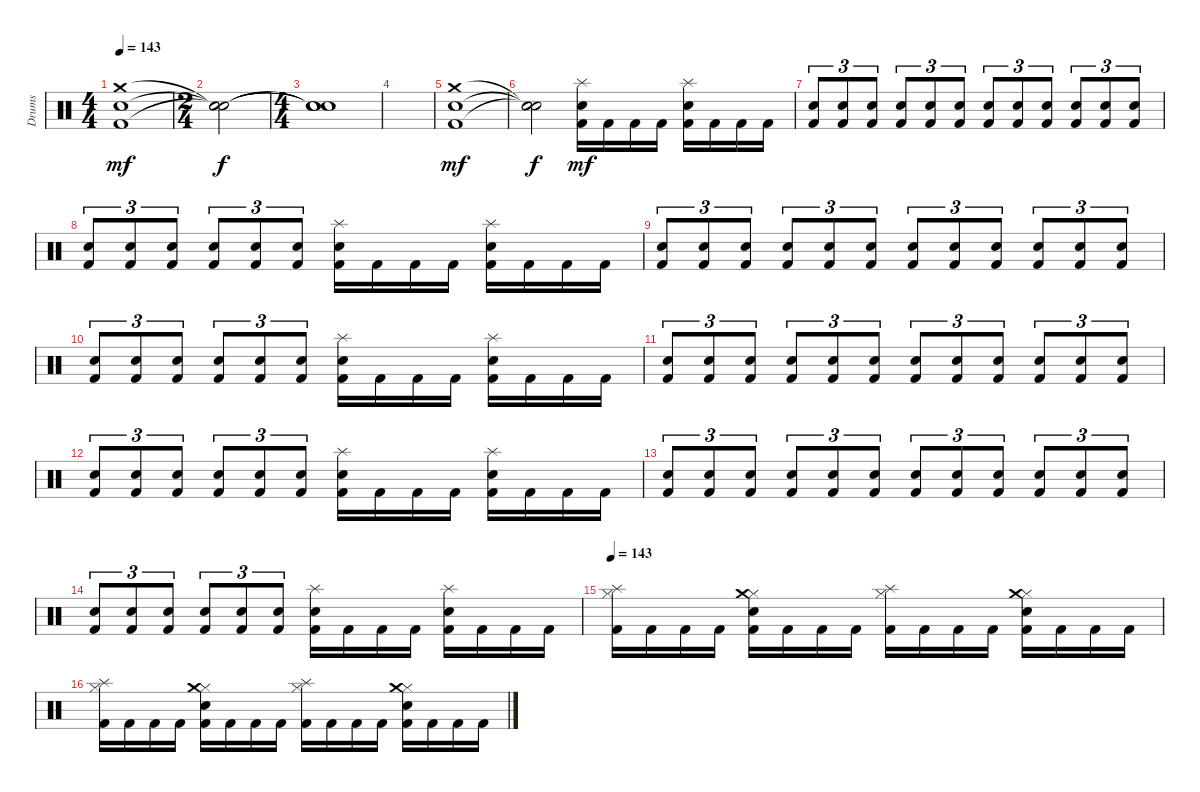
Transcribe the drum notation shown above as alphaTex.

\track ("Drums" "Drums") {instrument percussion}
\staff {score}
\articulation defaults
\ts (4 4)
\tempo 143
\clef neutral
\ks c
("Kick (hit) 2" "Snare (hit) 2" "Crash medium (hit)").1{dy mf} |
\ts (2 4)
("Snare (hit)"{t} "Snare (hit)"{t} "Snare (hit)"{t}).2{dy f} |
\ts (4 4)
("Snare (hit)"{t} "Snare (hit)"{t} "Snare (hit)"{t}).1 |
|
("Kick (hit) 2" "Snare (hit) 2" "Crash medium (hit)").1{dy mf} |
("Snare (hit)"{t} "Snare (hit)"{t} "Snare (hit)"{t}).2{dy f} ("Kick (hit) 2" "Snare (hit) 2" "Splash (hit)").16{dy mf} "Kick (hit) 2".16 "Kick (hit) 2".16 "Kick (hit) 2".16 ("Kick (hit) 2" "Snare (hit) 2" "Splash (hit)").16 "Kick (hit) 2".16 "Kick (hit) 2".16 "Kick (hit) 2".16 |
("Kick (hit) 2" "Snare (hit) 2").8{tu (3 2)} ("Kick (hit) 2" "Snare (hit) 2").8{tu (3 2)} ("Kick (hit) 2" "Snare (hit) 2").8{tu (3 2)} ("Kick (hit) 2" "Snare (hit) 2").8{tu (3 2)} ("Kick (hit) 2" "Snare (hit) 2").8{tu (3 2)} ("Kick (hit) 2" "Snare (hit) 2").8{tu (3 2)} ("Kick (hit) 2" "Snare (hit) 2").8{tu (3 2)} ("Kick (hit) 2" "Snare (hit) 2").8{tu (3 2)} ("Kick (hit) 2" "Snare (hit) 2").8{tu (3 2)} ("Kick (hit) 2" "Snare (hit) 2").8{tu (3 2)} ("Kick (hit) 2" "Snare (hit) 2").8{tu (3 2)} ("Kick (hit) 2" "Snare (hit) 2").8{tu (3 2)} |
("Kick (hit) 2" "Snare (hit) 2").8{tu (3 2)} ("Kick (hit) 2" "Snare (hit) 2").8{tu (3 2)} ("Kick (hit) 2" "Snare (hit) 2").8{tu (3 2)} ("Kick (hit) 2" "Snare (hit) 2").8{tu (3 2)} ("Kick (hit) 2" "Snare (hit) 2").8{tu (3 2)} ("Kick (hit) 2" "Snare (hit) 2").8{tu (3 2)} ("Kick (hit) 2" "Snare (hit) 2" "Splash (hit)").16 "Kick (hit) 2".16 "Kick (hit) 2".16 "Kick (hit) 2".16 ("Kick (hit) 2" "Snare (hit) 2" "Splash (hit)").16 "Kick (hit) 2".16 "Kick (hit) 2".16 "Kick (hit) 2".16 |
("Kick (hit) 2" "Snare (hit) 2").8{tu (3 2)} ("Kick (hit) 2" "Snare (hit) 2").8{tu (3 2)} ("Kick (hit) 2" "Snare (hit) 2").8{tu (3 2)} ("Kick (hit) 2" "Snare (hit) 2").8{tu (3 2)} ("Kick (hit) 2" "Snare (hit) 2").8{tu (3 2)} ("Kick (hit) 2" "Snare (hit) 2").8{tu (3 2)} ("Kick (hit) 2" "Snare (hit) 2").8{tu (3 2)} ("Kick (hit) 2" "Snare (hit) 2").8{tu (3 2)} ("Kick (hit) 2" "Snare (hit) 2").8{tu (3 2)} ("Kick (hit) 2" "Snare (hit) 2").8{tu (3 2)} ("Kick (hit) 2" "Snare (hit) 2").8{tu (3 2)} ("Kick (hit) 2" "Snare (hit) 2").8{tu (3 2)} |
("Kick (hit) 2" "Snare (hit) 2").8{tu (3 2)} ("Kick (hit) 2" "Snare (hit) 2").8{tu (3 2)} ("Kick (hit) 2" "Snare (hit) 2").8{tu (3 2)} ("Kick (hit) 2" "Snare (hit) 2").8{tu (3 2)} ("Kick (hit) 2" "Snare (hit) 2").8{tu (3 2)} ("Kick (hit) 2" "Snare (hit) 2").8{tu (3 2)} ("Kick (hit) 2" "Snare (hit) 2" "Splash (hit)").16 "Kick (hit) 2".16 "Kick (hit) 2".16 "Kick (hit) 2".16 ("Kick (hit) 2" "Snare (hit) 2" "Splash (hit)").16 "Kick (hit) 2".16 "Kick (hit) 2".16 "Kick (hit) 2".16 |
("Kick (hit) 2" "Snare (hit) 2").8{tu (3 2)} ("Kick (hit) 2" "Snare (hit) 2").8{tu (3 2)} ("Kick (hit) 2" "Snare (hit) 2").8{tu (3 2)} ("Kick (hit) 2" "Snare (hit) 2").8{tu (3 2)} ("Kick (hit) 2" "Snare (hit) 2").8{tu (3 2)} ("Kick (hit) 2" "Snare (hit) 2").8{tu (3 2)} ("Kick (hit) 2" "Snare (hit) 2").8{tu (3 2)} ("Kick (hit) 2" "Snare (hit) 2").8{tu (3 2)} ("Kick (hit) 2" "Snare (hit) 2").8{tu (3 2)} ("Kick (hit) 2" "Snare (hit) 2").8{tu (3 2)} ("Kick (hit) 2" "Snare (hit) 2").8{tu (3 2)} ("Kick (hit) 2" "Snare (hit) 2").8{tu (3 2)} |
("Kick (hit) 2" "Snare (hit) 2").8{tu (3 2)} ("Kick (hit) 2" "Snare (hit) 2").8{tu (3 2)} ("Kick (hit) 2" "Snare (hit) 2").8{tu (3 2)} ("Kick (hit) 2" "Snare (hit) 2").8{tu (3 2)} ("Kick (hit) 2" "Snare (hit) 2").8{tu (3 2)} ("Kick (hit) 2" "Snare (hit) 2").8{tu (3 2)} ("Kick (hit) 2" "Snare (hit) 2" "Splash (hit)").16 "Kick (hit) 2".16 "Kick (hit) 2".16 "Kick (hit) 2".16 ("Kick (hit) 2" "Snare (hit) 2" "Splash (hit)").16 "Kick (hit) 2".16 "Kick (hit) 2".16 "Kick (hit) 2".16 |
("Kick (hit) 2" "Snare (hit) 2").8{tu (3 2)} ("Kick (hit) 2" "Snare (hit) 2").8{tu (3 2)} ("Kick (hit) 2" "Snare (hit) 2").8{tu (3 2)} ("Kick (hit) 2" "Snare (hit) 2").8{tu (3 2)} ("Kick (hit) 2" "Snare (hit) 2").8{tu (3 2)} ("Kick (hit) 2" "Snare (hit) 2").8{tu (3 2)} ("Kick (hit) 2" "Snare (hit) 2").8{tu (3 2)} ("Kick (hit) 2" "Snare (hit) 2").8{tu (3 2)} ("Kick (hit) 2" "Snare (hit) 2").8{tu (3 2)} ("Kick (hit) 2" "Snare (hit) 2").8{tu (3 2)} ("Kick (hit) 2" "Snare (hit) 2").8{tu (3 2)} ("Kick (hit) 2" "Snare (hit) 2").8{tu (3 2)} |
("Kick (hit) 2" "Snare (hit) 2").8{tu (3 2)} ("Kick (hit) 2" "Snare (hit) 2").8{tu (3 2)} ("Kick (hit) 2" "Snare (hit) 2").8{tu (3 2)} ("Kick (hit) 2" "Snare (hit) 2").8{tu (3 2)} ("Kick (hit) 2" "Snare (hit) 2").8{tu (3 2)} ("Kick (hit) 2" "Snare (hit) 2").8{tu (3 2)} ("Kick (hit) 2" "Snare (hit) 2" "Splash (hit)").16 "Kick (hit) 2".16 "Kick (hit) 2".16 "Kick (hit) 2".16 ("Kick (hit) 2" "Snare (hit) 2" "Splash (hit)").16 "Kick (hit) 2".16 "Kick (hit) 2".16 "Kick (hit) 2".16 |
\tempo 143
("Kick (hit) 2" "Hi-Hat (closed)" "Splash (hit)").16 "Kick (hit) 2".16 "Kick (hit) 2".16 "Kick (hit) 2".16 ("Kick (hit) 2" "Snare (hit) 2" "Hi-Hat (closed)" "Crash medium (hit)").16 "Kick (hit) 2".16 "Kick (hit) 2".16 "Kick (hit) 2".16 ("Kick (hit) 2" "Hi-Hat (closed)" "Splash (hit)").16 "Kick (hit) 2".16 "Kick (hit) 2".16 "Kick (hit) 2".16 ("Kick (hit) 2" "Snare (hit) 2" "Hi-Hat (closed)" "Crash medium (hit)").16 "Kick (hit) 2".16 "Kick (hit) 2".16 "Kick (hit) 2".16 |
("Kick (hit) 2" "Hi-Hat (closed)" "Splash (hit)").16 "Kick (hit) 2".16 "Kick (hit) 2".16 "Kick (hit) 2".16 ("Kick (hit) 2" "Snare (hit) 2" "Hi-Hat (closed)" "Crash medium (hit)").16 "Kick (hit) 2".16 "Kick (hit) 2".16 "Kick (hit) 2".16 ("Kick (hit) 2" "Hi-Hat (closed)" "Splash (hit)").16 "Kick (hit) 2".16 "Kick (hit) 2".16 "Kick (hit) 2".16 ("Kick (hit) 2" "Snare (hit) 2" "Hi-Hat (closed)" "Crash medium (hit)").16 "Kick (hit) 2".16 "Kick (hit) 2".16 "Kick (hit) 2".16
